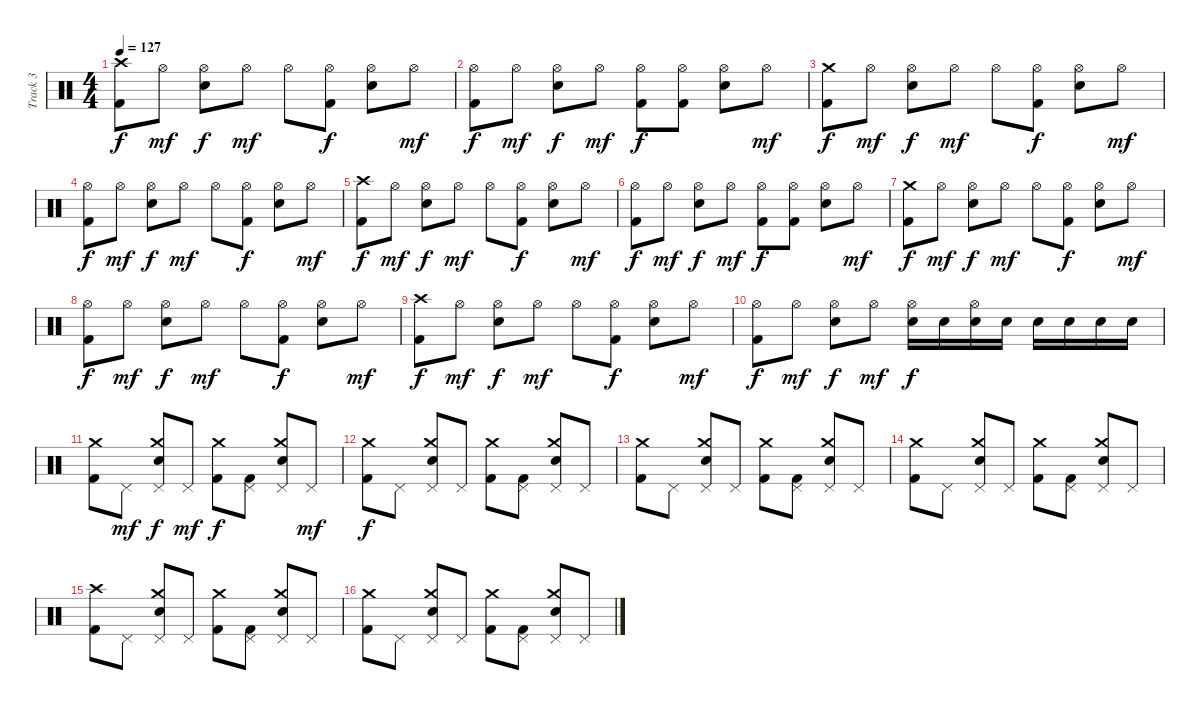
\track ("Track 3" "Track 3") {instrument percussion}
\staff {score}
\articulation defaults
\ts (4 4)
\tempo 127
\clef neutral
\ks c
("Crash high (hit)" "Kick (hit) 2").8{dy f} "Hi-Hat (open)".8{dy mf} ("Hi-Hat (open)" "Snare (hit) 2").8{dy f} "Hi-Hat (open)".8{dy mf} "Hi-Hat (open)".8 ("Hi-Hat (open)" "Kick (hit) 2").8{dy f} ("Hi-Hat (open)" "Snare (hit) 2").8 "Hi-Hat (open)".8{dy mf} |
("Hi-Hat (open)" "Kick (hit) 2").8{dy f} "Hi-Hat (open)".8{dy mf} ("Hi-Hat (open)" "Snare (hit) 2").8{dy f} "Hi-Hat (open)".8{dy mf} ("Hi-Hat (open)" "Kick (hit) 2").8{dy f} ("Hi-Hat (open)" "Kick (hit) 2").8 ("Hi-Hat (open)" "Snare (hit) 2").8 "Hi-Hat (open)".8{dy mf} |
("Crash medium (hit)" "Kick (hit) 2").8{dy f} "Hi-Hat (open)".8{dy mf} ("Hi-Hat (open)" "Snare (hit) 2").8{dy f} "Hi-Hat (open)".8{dy mf} "Hi-Hat (open)".8 ("Hi-Hat (open)" "Kick (hit) 2").8{dy f} ("Hi-Hat (open)" "Snare (hit) 2").8 "Hi-Hat (open)".8{dy mf} |
("Hi-Hat (open)" "Kick (hit) 2").8{dy f} "Hi-Hat (open)".8{dy mf} ("Hi-Hat (open)" "Snare (hit) 2").8{dy f} "Hi-Hat (open)".8{dy mf} "Hi-Hat (open)".8 ("Hi-Hat (open)" "Kick (hit) 2").8{dy f} ("Hi-Hat (open)" "Snare (hit) 2").8 "Hi-Hat (open)".8{dy mf} |
("Crash high (hit)" "Kick (hit) 2").8{dy f} "Hi-Hat (open)".8{dy mf} ("Hi-Hat (open)" "Snare (hit) 2").8{dy f} "Hi-Hat (open)".8{dy mf} "Hi-Hat (open)".8 ("Hi-Hat (open)" "Kick (hit) 2").8{dy f} ("Hi-Hat (open)" "Snare (hit) 2").8 "Hi-Hat (open)".8{dy mf} |
("Hi-Hat (open)" "Kick (hit) 2").8{dy f} "Hi-Hat (open)".8{dy mf} ("Hi-Hat (open)" "Snare (hit) 2").8{dy f} "Hi-Hat (open)".8{dy mf} ("Hi-Hat (open)" "Kick (hit) 2").8{dy f} ("Hi-Hat (open)" "Kick (hit) 2").8 ("Hi-Hat (open)" "Snare (hit) 2").8 "Hi-Hat (open)".8{dy mf} |
("Crash medium (hit)" "Kick (hit) 2").8{dy f} "Hi-Hat (open)".8{dy mf} ("Hi-Hat (open)" "Snare (hit) 2").8{dy f} "Hi-Hat (open)".8{dy mf} "Hi-Hat (open)".8 ("Hi-Hat (open)" "Kick (hit) 2").8{dy f} ("Hi-Hat (open)" "Snare (hit) 2").8 "Hi-Hat (open)".8{dy mf} |
("Hi-Hat (open)" "Kick (hit) 2").8{dy f} "Hi-Hat (open)".8{dy mf} ("Hi-Hat (open)" "Snare (hit) 2").8{dy f} "Hi-Hat (open)".8{dy mf} "Hi-Hat (open)".8 ("Hi-Hat (open)" "Kick (hit) 2").8{dy f} ("Hi-Hat (open)" "Snare (hit) 2").8 "Hi-Hat (open)".8{dy mf} |
("Crash high (hit)" "Kick (hit) 2").8{dy f} "Hi-Hat (open)".8{dy mf} ("Hi-Hat (open)" "Snare (hit) 2").8{dy f} "Hi-Hat (open)".8{dy mf} "Hi-Hat (open)".8 ("Hi-Hat (open)" "Kick (hit) 2").8{dy f} ("Hi-Hat (open)" "Snare (hit) 2").8 "Hi-Hat (open)".8{dy mf} |
("Hi-Hat (open)" "Kick (hit) 2").8{dy f} "Hi-Hat (open)".8{dy mf} ("Hi-Hat (open)" "Snare (hit) 2").8{dy f} "Hi-Hat (open)".8{dy mf} ("Hi-Hat (open)" "Snare (hit) 2").16{dy f} "Snare (hit) 2".16 ("Hi-Hat (open)" "Snare (hit) 2").16 "Snare (hit) 2".16 "Snare (hit) 2".16 "Snare (hit) 2".16 "Snare (hit) 2".16 "Snare (hit) 2".16 |
("Crash medium (hit)" "Kick (hit) 2").8 "Pedal Hi-Hat (hit)".8{dy mf} ("Crash medium (hit)" "Pedal Hi-Hat (hit)" "Snare (hit) 2").8{dy f} "Pedal Hi-Hat (hit)".8{dy mf} ("Crash medium (hit)" "Kick (hit) 2").8{dy f} ("Pedal Hi-Hat (hit)" "Kick (hit) 2").8 ("Crash medium (hit)" "Pedal Hi-Hat (hit)" "Snare (hit) 2").8 "Pedal Hi-Hat (hit)".8{dy mf} |
("Crash medium (hit)" "Kick (hit) 2").8{dy f} "Pedal Hi-Hat (hit)".8 ("Crash medium (hit)" "Pedal Hi-Hat (hit)" "Snare (hit) 2").8 "Pedal Hi-Hat (hit)".8 ("Crash medium (hit)" "Kick (hit) 2").8 ("Pedal Hi-Hat (hit)" "Kick (hit) 2").8 ("Crash medium (hit)" "Pedal Hi-Hat (hit)" "Snare (hit) 2").8 "Pedal Hi-Hat (hit)".8 |
("Crash medium (hit)" "Kick (hit) 2").8 "Pedal Hi-Hat (hit)".8 ("Crash medium (hit)" "Pedal Hi-Hat (hit)" "Snare (hit) 2").8 "Pedal Hi-Hat (hit)".8 ("Crash medium (hit)" "Kick (hit) 2").8 ("Pedal Hi-Hat (hit)" "Kick (hit) 2").8 ("Crash medium (hit)" "Pedal Hi-Hat (hit)" "Snare (hit) 2").8 "Pedal Hi-Hat (hit)".8 |
("Crash medium (hit)" "Kick (hit) 2").8 "Pedal Hi-Hat (hit)".8 ("Crash medium (hit)" "Pedal Hi-Hat (hit)" "Snare (hit) 2").8 "Pedal Hi-Hat (hit)".8 ("Crash medium (hit)" "Kick (hit) 2").8 ("Pedal Hi-Hat (hit)" "Kick (hit) 2").8 ("Crash medium (hit)" "Pedal Hi-Hat (hit)" "Snare (hit) 2").8 "Pedal Hi-Hat (hit)".8 |
("Crash high (hit)" "Kick (hit) 2").8 "Pedal Hi-Hat (hit)".8 ("Crash medium (hit)" "Pedal Hi-Hat (hit)" "Snare (hit) 2").8 "Pedal Hi-Hat (hit)".8 ("Crash medium (hit)" "Kick (hit) 2").8 ("Pedal Hi-Hat (hit)" "Kick (hit) 2").8 ("Crash medium (hit)" "Pedal Hi-Hat (hit)" "Snare (hit) 2").8 "Pedal Hi-Hat (hit)".8 |
("Crash medium (hit)" "Kick (hit) 2").8 "Pedal Hi-Hat (hit)".8 ("Crash medium (hit)" "Pedal Hi-Hat (hit)" "Snare (hit) 2").8 "Pedal Hi-Hat (hit)".8 ("Crash medium (hit)" "Kick (hit) 2").8 ("Pedal Hi-Hat (hit)" "Kick (hit) 2").8 ("Crash medium (hit)" "Pedal Hi-Hat (hit)" "Snare (hit) 2").8 "Pedal Hi-Hat (hit)".8
